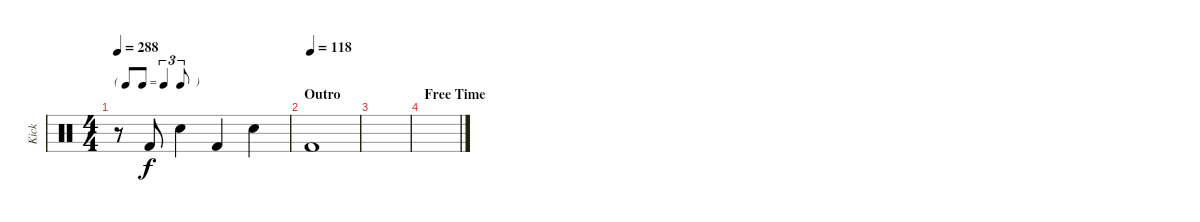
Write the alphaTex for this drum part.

\track ("Kick" "Kick") {instrument percussion}
\staff {score}
\articulation defaults
\ts (4 4)
\tf triplet8th
\tempo 288
\clef neutral
\ks c
r.8{dy f} "Kick (hit) 2".8 "Snare (hit) 2".4 "Kick (hit) 2".4 "Snare (hit) 2".4 |
\section ("" "Outro")
\tempo 116
\tempo (118)
"Kick (hit) 2".1 |
|
\section ("" "Free Time")
